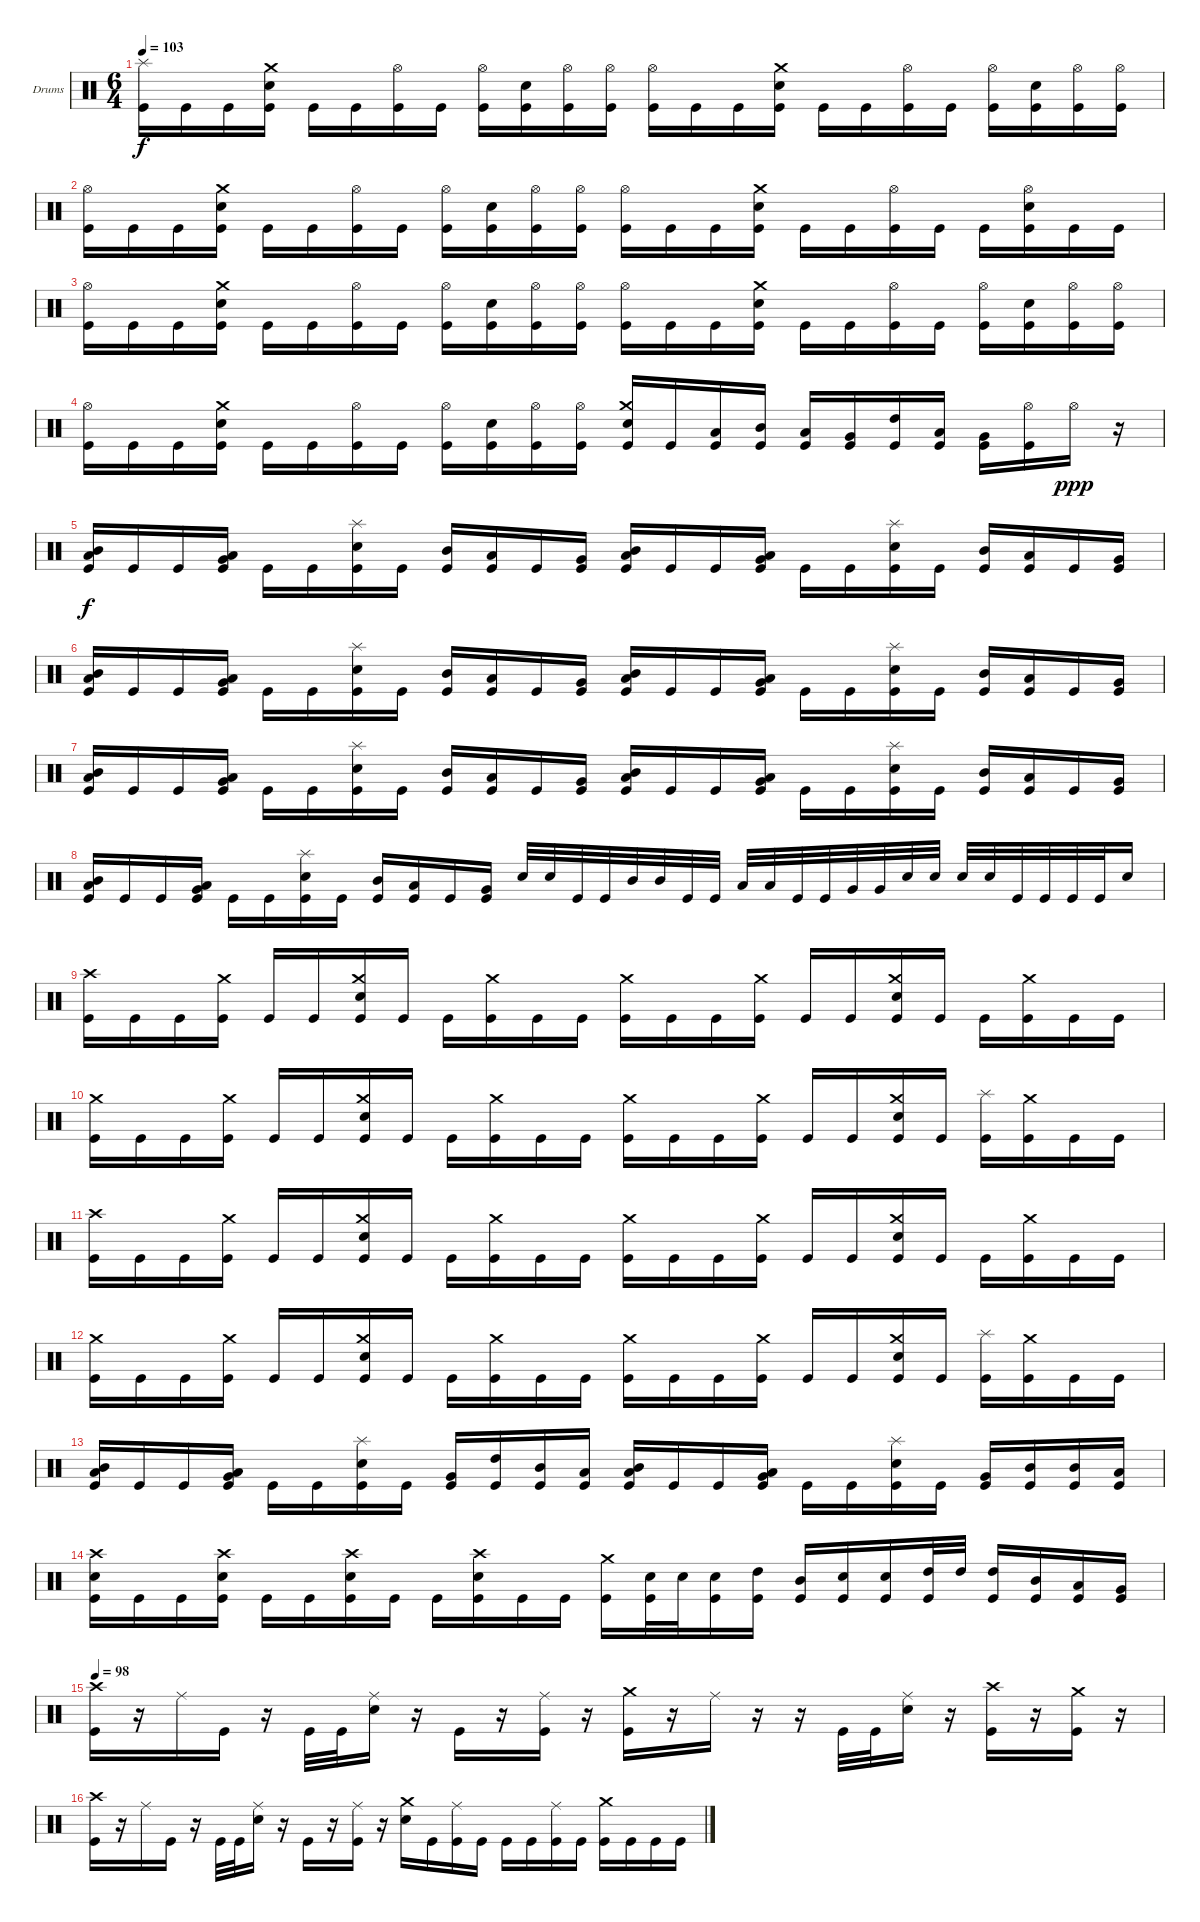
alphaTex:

\bracketExtendMode groupsimilarinstruments
\firstSystemTrackNameOrientation horizontal
\otherSystemsTrackNameOrientation horizontal
\track ("Drumkit" "Drums") {instrument percussion}
\staff {score}
\articulation defaults
\ts (6 4)
\tempo 103
\clef neutral
\ks c
("Splash (hit)" "Kick (hit)").16{dy f} "Kick (hit)".16 "Kick (hit)".16 ("Crash medium (hit)" "Snare (hit) 2" "Kick (hit)").16 "Kick (hit)".16 "Kick (hit)".16 ("Hi-Hat (open)" "Kick (hit)").16 "Kick (hit)".16 ("Hi-Hat (open)" "Kick (hit)").16 ("Snare (hit) 2" "Kick (hit)").16 ("Hi-Hat (open)" "Kick (hit)").16 ("Hi-Hat (open)" "Kick (hit)").16 ("Hi-Hat (open)" "Kick (hit)").16 "Kick (hit)".16 "Kick (hit)".16 ("Crash medium (hit)" "Snare (hit) 2" "Kick (hit)").16 "Kick (hit)".16 "Kick (hit)".16 ("Hi-Hat (open)" "Kick (hit)").16 "Kick (hit)".16 ("Hi-Hat (open)" "Kick (hit)").16 ("Snare (hit) 2" "Kick (hit)").16 ("Hi-Hat (open)" "Kick (hit)").16 ("Hi-Hat (open)" "Kick (hit)").16 |
("Hi-Hat (open)" "Kick (hit)").16 "Kick (hit)".16 "Kick (hit)".16 ("Crash medium (hit)" "Snare (hit) 2" "Kick (hit)").16 "Kick (hit)".16 "Kick (hit)".16 ("Hi-Hat (open)" "Kick (hit)").16 "Kick (hit)".16 ("Hi-Hat (open)" "Kick (hit)").16 ("Snare (hit) 2" "Kick (hit)").16 ("Hi-Hat (open)" "Kick (hit)").16 ("Hi-Hat (open)" "Kick (hit)").16 ("Hi-Hat (open)" "Kick (hit)").16 "Kick (hit)".16 "Kick (hit)".16 ("Crash medium (hit)" "Snare (hit) 2" "Kick (hit)").16 "Kick (hit)".16 "Kick (hit)".16 ("Hi-Hat (open)" "Kick (hit)").16 "Kick (hit)".16 "Kick (hit)".16 ("Hi-Hat (open)" "Snare (hit) 2" "Kick (hit)").16 "Kick (hit)".16 "Kick (hit)".16 |
("Hi-Hat (open)" "Kick (hit)").16 "Kick (hit)".16 "Kick (hit)".16 ("Crash medium (hit)" "Snare (hit) 2" "Kick (hit)").16 "Kick (hit)".16 "Kick (hit)".16 ("Hi-Hat (open)" "Kick (hit)").16 "Kick (hit)".16 ("Hi-Hat (open)" "Kick (hit)").16 ("Snare (hit) 2" "Kick (hit)").16 ("Hi-Hat (open)" "Kick (hit)").16 ("Hi-Hat (open)" "Kick (hit)").16 ("Hi-Hat (open)" "Kick (hit)").16 "Kick (hit)".16 "Kick (hit)".16 ("Crash medium (hit)" "Snare (hit) 2" "Kick (hit)").16 "Kick (hit)".16 "Kick (hit)".16 ("Hi-Hat (open)" "Kick (hit)").16 "Kick (hit)".16 ("Hi-Hat (open)" "Kick (hit)").16 ("Snare (hit) 2" "Kick (hit)").16 ("Hi-Hat (open)" "Kick (hit)").16 ("Hi-Hat (open)" "Kick (hit)").16 |
("Hi-Hat (open)" "Kick (hit)").16 "Kick (hit)".16 "Kick (hit)".16 ("Crash medium (hit)" "Snare (hit) 2" "Kick (hit)").16 "Kick (hit)".16 "Kick (hit)".16 ("Hi-Hat (open)" "Kick (hit)").16 "Kick (hit)".16 ("Hi-Hat (open)" "Kick (hit)").16 ("Snare (hit) 2" "Kick (hit)").16 ("Hi-Hat (open)" "Kick (hit)").16 ("Hi-Hat (open)" "Kick (hit)").16 ("Crash medium (hit)" "Snare (hit) 2" "Kick (hit)").16 "Kick (hit)".16 ("Low Tom (hit)" "Kick (hit)").16 ("Mid Tom (hit)" "Kick (hit)").16 ("Low Tom (hit)" "Kick (hit)").16 ("Very Low Tom (hit)" "Kick (hit)").16 ("High Tom (hit)" "Kick (hit)").16 ("Low Tom (hit)" "Kick (hit)").16 ("Very Low Tom (hit)" "Kick (hit)").16 ("Hi-Hat (open)" "Kick (hit)").16 "Hi-Hat (open)".16{dy ppp} r.16 |
("Mid Tom (hit)" "Low Tom (hit)" "Kick (hit)").16{dy f} "Kick (hit)".16 "Kick (hit)".16 ("Low Tom (hit)" "Very Low Tom (hit)" "Kick (hit)").16 "Kick (hit)".16 "Kick (hit)".16 ("Splash (hit)" "Snare (hit) 2" "Kick (hit)").16 "Kick (hit)".16 ("Mid Tom (hit)" "Kick (hit)").16 ("Low Tom (hit)" "Kick (hit)").16 "Kick (hit)".16 ("Very Low Tom (hit)" "Kick (hit)").16 ("Mid Tom (hit)" "Low Tom (hit)" "Kick (hit)").16 "Kick (hit)".16 "Kick (hit)".16 ("Low Tom (hit)" "Very Low Tom (hit)" "Kick (hit)").16 "Kick (hit)".16 "Kick (hit)".16 ("Splash (hit)" "Snare (hit) 2" "Kick (hit)").16 "Kick (hit)".16 ("Mid Tom (hit)" "Kick (hit)").16 ("Low Tom (hit)" "Kick (hit)").16 "Kick (hit)".16 ("Very Low Tom (hit)" "Kick (hit)").16 |
("Mid Tom (hit)" "Low Tom (hit)" "Kick (hit)").16 "Kick (hit)".16 "Kick (hit)".16 ("Low Tom (hit)" "Very Low Tom (hit)" "Kick (hit)").16 "Kick (hit)".16 "Kick (hit)".16 ("Splash (hit)" "Snare (hit) 2" "Kick (hit)").16 "Kick (hit)".16 ("Mid Tom (hit)" "Kick (hit)").16 ("Low Tom (hit)" "Kick (hit)").16 "Kick (hit)".16 ("Very Low Tom (hit)" "Kick (hit)").16 ("Mid Tom (hit)" "Low Tom (hit)" "Kick (hit)").16 "Kick (hit)".16 "Kick (hit)".16 ("Low Tom (hit)" "Very Low Tom (hit)" "Kick (hit)").16 "Kick (hit)".16 "Kick (hit)".16 ("Splash (hit)" "Snare (hit) 2" "Kick (hit)").16 "Kick (hit)".16 ("Mid Tom (hit)" "Kick (hit)").16 ("Low Tom (hit)" "Kick (hit)").16 "Kick (hit)".16 ("Very Low Tom (hit)" "Kick (hit)").16 |
("Mid Tom (hit)" "Low Tom (hit)" "Kick (hit)").16 "Kick (hit)".16 "Kick (hit)".16 ("Low Tom (hit)" "Very Low Tom (hit)" "Kick (hit)").16 "Kick (hit)".16 "Kick (hit)".16 ("Splash (hit)" "Snare (hit) 2" "Kick (hit)").16 "Kick (hit)".16 ("Mid Tom (hit)" "Kick (hit)").16 ("Low Tom (hit)" "Kick (hit)").16 "Kick (hit)".16 ("Very Low Tom (hit)" "Kick (hit)").16 ("Mid Tom (hit)" "Low Tom (hit)" "Kick (hit)").16 "Kick (hit)".16 "Kick (hit)".16 ("Low Tom (hit)" "Very Low Tom (hit)" "Kick (hit)").16 "Kick (hit)".16 "Kick (hit)".16 ("Splash (hit)" "Snare (hit) 2" "Kick (hit)").16 "Kick (hit)".16 ("Mid Tom (hit)" "Kick (hit)").16 ("Low Tom (hit)" "Kick (hit)").16 "Kick (hit)".16 ("Very Low Tom (hit)" "Kick (hit)").16 |
("Mid Tom (hit)" "Low Tom (hit)" "Kick (hit)").16 "Kick (hit)".16 "Kick (hit)".16 ("Low Tom (hit)" "Very Low Tom (hit)" "Kick (hit)").16 "Kick (hit)".16 "Kick (hit)".16 ("Splash (hit)" "Snare (hit) 2" "Kick (hit)").16 "Kick (hit)".16 ("Mid Tom (hit)" "Kick (hit)").16 ("Low Tom (hit)" "Kick (hit)").16 "Kick (hit)".16 ("Very Low Tom (hit)" "Kick (hit)").16 "Snare (hit) 2".32 "Snare (hit) 2".32 "Kick (hit)".32 "Kick (hit)".32 "Mid Tom (hit)".32 "Mid Tom (hit)".32 "Kick (hit)".32 "Kick (hit)".32 "Low Tom (hit)".32 "Low Tom (hit)".32 "Kick (hit)".32 "Kick (hit)".32 "Very Low Tom (hit)".32 "Very Low Tom (hit)".32 "Snare (hit) 2".32 "Snare (hit) 2".32 "Snare (hit) 2".32 "Snare (hit) 2".32 "Kick (hit)".32 "Kick (hit)".32 "Kick (hit)".32 "Kick (hit)".32 "Snare (hit) 2".16 |
("Crash high (hit)" "Kick (hit)").16 "Kick (hit)".16 "Kick (hit)".16 ("Crash medium (hit)" "Kick (hit)").16 "Kick (hit)".16 "Kick (hit)".16 ("Crash medium (hit)" "Snare (hit) 2" "Kick (hit)").16 "Kick (hit)".16 "Kick (hit)".16 ("Crash medium (hit)" "Kick (hit)").16 "Kick (hit)".16 "Kick (hit)".16 ("Crash medium (hit)" "Kick (hit)").16 "Kick (hit)".16 "Kick (hit)".16 ("Crash medium (hit)" "Kick (hit)").16 "Kick (hit)".16 "Kick (hit)".16 ("Crash medium (hit)" "Snare (hit) 2" "Kick (hit)").16 "Kick (hit)".16 "Kick (hit)".16 ("Crash medium (hit)" "Kick (hit)").16 "Kick (hit)".16 "Kick (hit)".16 |
("Crash medium (hit)" "Kick (hit)").16 "Kick (hit)".16 "Kick (hit)".16 ("Crash medium (hit)" "Kick (hit)").16 "Kick (hit)".16 "Kick (hit)".16 ("Crash medium (hit)" "Snare (hit) 2" "Kick (hit)").16 "Kick (hit)".16 "Kick (hit)".16 ("Crash medium (hit)" "Kick (hit)").16 "Kick (hit)".16 "Kick (hit)".16 ("Crash medium (hit)" "Kick (hit)").16 "Kick (hit)".16 "Kick (hit)".16 ("Crash medium (hit)" "Kick (hit)").16 "Kick (hit)".16 "Kick (hit)".16 ("Crash medium (hit)" "Snare (hit) 2" "Kick (hit)").16 "Kick (hit)".16 ("Splash (hit)" "Kick (hit)").16 ("Crash medium (hit)" "Kick (hit)").16 "Kick (hit)".16 "Kick (hit)".16 |
("Crash high (hit)" "Kick (hit)").16 "Kick (hit)".16 "Kick (hit)".16 ("Crash medium (hit)" "Kick (hit)").16 "Kick (hit)".16 "Kick (hit)".16 ("Crash medium (hit)" "Snare (hit) 2" "Kick (hit)").16 "Kick (hit)".16 "Kick (hit)".16 ("Crash medium (hit)" "Kick (hit)").16 "Kick (hit)".16 "Kick (hit)".16 ("Crash medium (hit)" "Kick (hit)").16 "Kick (hit)".16 "Kick (hit)".16 ("Crash medium (hit)" "Kick (hit)").16 "Kick (hit)".16 "Kick (hit)".16 ("Crash medium (hit)" "Snare (hit) 2" "Kick (hit)").16 "Kick (hit)".16 "Kick (hit)".16 ("Crash medium (hit)" "Kick (hit)").16 "Kick (hit)".16 "Kick (hit)".16 |
("Crash medium (hit)" "Kick (hit)").16 "Kick (hit)".16 "Kick (hit)".16 ("Crash medium (hit)" "Kick (hit)").16 "Kick (hit)".16 "Kick (hit)".16 ("Crash medium (hit)" "Snare (hit) 2" "Kick (hit)").16 "Kick (hit)".16 "Kick (hit)".16 ("Crash medium (hit)" "Kick (hit)").16 "Kick (hit)".16 "Kick (hit)".16 ("Crash medium (hit)" "Kick (hit)").16 "Kick (hit)".16 "Kick (hit)".16 ("Crash medium (hit)" "Kick (hit)").16 "Kick (hit)".16 "Kick (hit)".16 ("Crash medium (hit)" "Snare (hit) 2" "Kick (hit)").16 "Kick (hit)".16 ("Splash (hit)" "Kick (hit)").16 ("Crash medium (hit)" "Kick (hit)").16 "Kick (hit)".16 "Kick (hit)".16 |
("Mid Tom (hit)" "Low Tom (hit)" "Kick (hit)").16 "Kick (hit)".16 "Kick (hit)".16 ("Low Tom (hit)" "Very Low Tom (hit)" "Kick (hit)").16 "Kick (hit)".16 "Kick (hit)".16 ("Splash (hit)" "Snare (hit) 2" "Kick (hit)").16 "Kick (hit)".16 ("Very Low Tom (hit)" "Kick (hit)").16 ("High Tom (hit)" "Kick (hit)").16 ("Mid Tom (hit)" "Kick (hit)").16 ("Low Tom (hit)" "Kick (hit)").16 ("Mid Tom (hit)" "Low Tom (hit)" "Kick (hit)").16 "Kick (hit)".16 "Kick (hit)".16 ("Low Tom (hit)" "Very Low Tom (hit)" "Kick (hit)").16 "Kick (hit)".16 "Kick (hit)".16 ("Splash (hit)" "Snare (hit) 2" "Kick (hit)").16 "Kick (hit)".16 ("Very Low Tom (hit)" "Kick (hit)").16 ("Mid Tom (hit)" "Kick (hit)").16 ("Mid Tom (hit)" "Kick (hit)").16 ("Low Tom (hit)" "Kick (hit)").16 |
("Crash high (hit)" "Snare (hit) 2" "Kick (hit)").16 "Kick (hit)".16 "Kick (hit)".16 ("Crash high (hit)" "Snare (hit) 2" "Kick (hit)").16 "Kick (hit)".16 "Kick (hit)".16 ("Crash high (hit)" "Snare (hit) 2" "Kick (hit)").16 "Kick (hit)".16 "Kick (hit)".16 ("Crash high (hit)" "Snare (hit) 2" "Kick (hit)").16 "Kick (hit)".16 "Kick (hit)".16 ("Crash medium (hit)" "Kick (hit)").16 ("Snare (hit) 2" "Kick (hit)").32 "Snare (hit) 2".32 ("Snare (hit) 2" "Kick (hit)").16 ("High Tom (hit)" "Kick (hit)").16 ("Mid Tom (hit)" "Kick (hit)").16 ("Snare (hit) 2" "Kick (hit)").16 ("Snare (hit) 2" "Kick (hit)").16 ("High Tom (hit)" "Kick (hit)").32 "High Tom (hit)".32 ("High Tom (hit)" "Kick (hit)").16 ("Mid Tom (hit)" "Kick (hit)").16 ("Low Tom (hit)" "Kick (hit)").16 ("Very Low Tom (hit)" "Kick (hit)").16 |
\tempo 98
("Crash high (hit)" "Kick (hit)").16 r.16 "Ride (middle)".16 "Kick (hit)".16 r.16 "Kick (hit)".32 "Kick (hit)".32 ("Ride (middle)" "Snare (hit) 2").16 r.16 "Kick (hit)".16 r.16 ("Ride (middle)" "Kick (hit)").16 r.16 ("Crash medium (hit)" "Kick (hit)").16 r.16 "Ride (middle)".16 r.16 r.16 "Kick (hit)".32 "Kick (hit)".32 ("Ride (middle)" "Snare (hit) 2").16 r.16 ("Crash high (hit)" "Kick (hit)").16 r.16 ("Crash medium (hit)" "Kick (hit)").16 r.16 |
("Crash high (hit)" "Kick (hit)").16 r.16 "Ride (middle)".16 "Kick (hit)".16 r.16 "Kick (hit)".32 "Kick (hit)".32 ("Ride (middle)" "Snare (hit) 2").16 r.16 "Kick (hit)".16 r.16 ("Ride (middle)" "Kick (hit)").16 r.16 ("Crash medium (hit)" "Snare (hit) 2").16 "Kick (hit)".16 ("Ride (middle)" "Kick (hit)").16 "Kick (hit)".16 "Kick (hit)".16 "Kick (hit)".16 ("Ride (middle)" "Kick (hit)").16 "Kick (hit)".16 ("Crash medium (hit)" "Kick (hit)").16 "Kick (hit)".16 "Kick (hit)".16 "Kick (hit)".16
